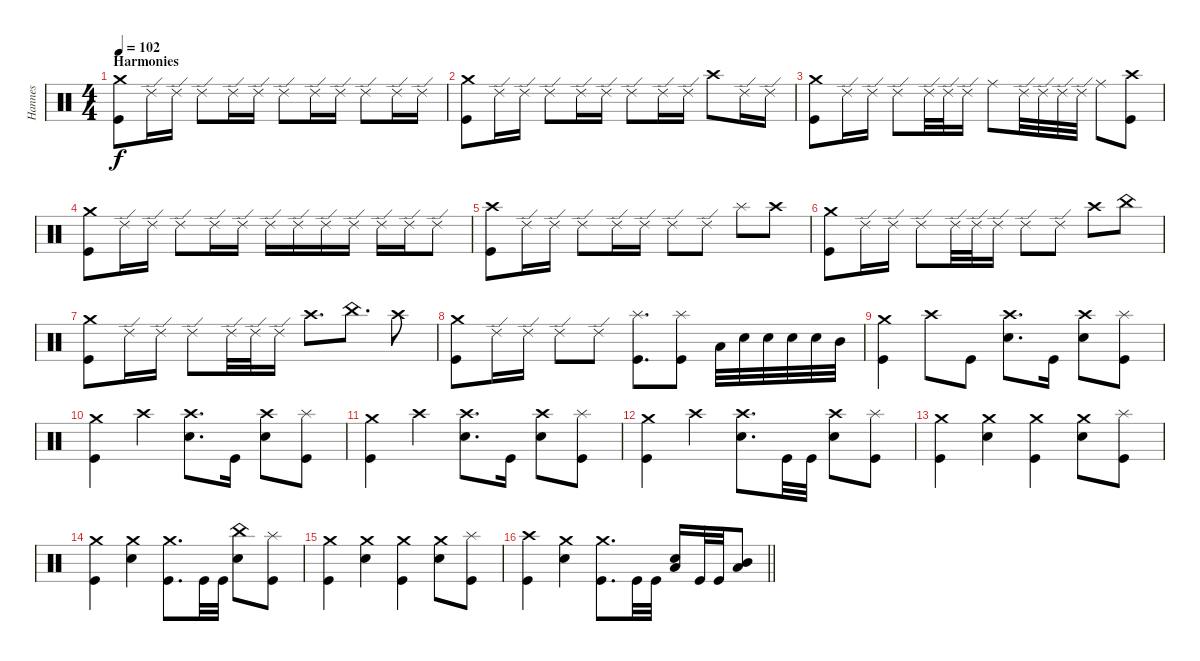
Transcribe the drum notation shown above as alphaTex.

\track ("Hannes" "Hannes") {instrument percussion}
\staff {score}
\articulation defaults
\ts (4 4)
\section ("" "Harmonies")
\tempo 102
\clef neutral
\ks c
("Crash medium (hit)" "Kick (hit)").8{dy f} "Ride (edge) 2".16 "Ride (edge) 2".16 "Ride (edge) 2".8 "Ride (edge) 2".16 "Ride (edge) 2".16 "Ride (edge) 2".8 "Ride (edge) 2".16 "Ride (edge) 2".16 "Ride (edge) 2".8 "Ride (edge) 2".16 "Ride (edge) 2".16 |
("Crash medium (hit)" "Kick (hit)").8 "Ride (edge) 2".16 "Ride (edge) 2".16 "Ride (edge) 2".8 "Ride (edge) 2".16 "Ride (edge) 2".16 "Ride (edge) 2".8 "Ride (edge) 2".16 "Ride (edge) 2".16 "Crash high (hit)".8 "Ride (edge) 2".16 "Ride (edge) 2".16 |
("Crash medium (hit)" "Kick (hit)").8 "Ride (edge) 2".16 "Ride (edge) 2".16 "Ride (edge) 2".8 "Ride (edge) 2".32 "Ride (edge) 2".32 "Ride (edge) 2".16 "Ride (middle)".8 "Ride (edge) 2".32 "Ride (edge) 2".32 "Ride (edge) 2".32 "Ride (edge) 2".32 "Ride (middle)".8 ("Crash high (hit)" "Kick (hit)").8 |
("Crash medium (hit)" "Kick (hit)").8 "Ride (edge) 2".16 "Ride (edge) 2".16 "Ride (edge) 2".8 "Ride (edge) 2".16 "Ride (edge) 2".16 "Ride (edge) 2".16 "Ride (edge) 2".16 "Ride (edge) 2".16 "Ride (edge) 2".16 "Ride (edge) 2".16 "Ride (edge) 2".16 "Ride (edge) 2".8 |
("Crash high (hit)" "Kick (hit)").8 "Ride (edge) 2".16 "Ride (edge) 2".16 "Ride (edge) 2".8 "Ride (edge) 2".16 "Ride (edge) 2".16 "Ride (edge) 2".8 "Ride (edge) 2".8 "Splash (hit)".8 "Crash high (hit)".8 |
("Crash medium (hit)" "Kick (hit)").8 "Ride (edge) 2".16 "Ride (edge) 2".16 "Ride (edge) 2".8 "Ride (edge) 2".32 "Ride (edge) 2".32 "Ride (edge) 2".16 "Ride (edge) 2".8 "Ride (edge) 2".8 "Crash high (hit)".8 "China (hit)".8 |
("Crash medium (hit)" "Kick (hit)").8 "Ride (edge) 2".16 "Ride (edge) 2".16 "Ride (edge) 2".8 "Ride (edge) 2".32 "Ride (edge) 2".32 "Ride (edge) 2".16 "Crash high (hit)".8{d} "China (hit)".8{d} "Crash high (hit)".8 |
("Crash medium (hit)" "Kick (hit)").8 "Ride (edge) 2".16 "Ride (edge) 2".16 "Ride (edge) 2".8 "Ride (edge) 2".8 ("Splash (hit)" "Kick (hit)").8{d} ("Splash (hit)" "Kick (hit)").8 "Low Tom (hit)".32 "Electric Snare (hit)".32 "Electric Snare (hit)".32 "Electric Snare (hit)".32 "Electric Snare (hit)".32 "Mid Tom (hit)".32 |
("Crash medium (hit)" "Kick (hit)").4 "Crash high (hit)".8 "Kick (hit)".8 ("Crash high (hit)" "Electric Snare (hit)").8{d} "Kick (hit)".16 ("Crash high (hit)" "Electric Snare (hit)").8 ("Splash (hit)" "Kick (hit)").8 |
("Crash medium (hit)" "Kick (hit)").4 "Crash high (hit)".4 ("Crash high (hit)" "Electric Snare (hit)").8{d} "Kick (hit)".16 ("Crash high (hit)" "Electric Snare (hit)").8 ("Splash (hit)" "Kick (hit)").8 |
("Crash medium (hit)" "Kick (hit)").4 "Crash high (hit)".4 ("Crash high (hit)" "Electric Snare (hit)").8{d} "Kick (hit)".16 ("Crash high (hit)" "Electric Snare (hit)").8 ("Splash (hit)" "Kick (hit)").8 |
("Crash medium (hit)" "Kick (hit)").4 "Crash high (hit)".4 ("Crash high (hit)" "Electric Snare (hit)").8{d} "Kick (hit)".32 "Kick (hit)".32 ("Crash high (hit)" "Electric Snare (hit)").8 ("Splash (hit)" "Kick (hit)").8 |
("Crash medium (hit)" "Kick (hit)").4 ("Crash medium (hit)" "Electric Snare (hit)").4 ("Crash medium (hit)" "Kick (hit)").4 ("Crash medium (hit)" "Electric Snare (hit)").8 ("Splash (hit)" "Kick (hit)").8 |
("Crash medium (hit)" "Kick (hit)").4 ("Crash medium (hit)" "Electric Snare (hit)").4 ("Crash medium (hit)" "Kick (hit)").8{d} "Kick (hit)".32 "Kick (hit)".32 ("China (hit)" "Electric Snare (hit)").8 ("Splash (hit)" "Kick (hit)").8 |
("Crash medium (hit)" "Kick (hit)").4 ("Crash medium (hit)" "Electric Snare (hit)").4 ("Crash medium (hit)" "Kick (hit)").4 ("Crash medium (hit)" "Electric Snare (hit)").8 ("Splash (hit)" "Kick (hit)").8 |
\barLineRight lightlight
("Crash high (hit)" "Kick (hit)").4 ("Crash medium (hit)" "Electric Snare (hit)").4 ("Crash medium (hit)" "Kick (hit)").8{d} "Kick (hit)".32 "Kick (hit)".32 ("Low Tom (hit)" "Electric Snare (hit)").16 "Kick (hit)".32 "Kick (hit)".32 ("Low Tom (hit)" "Mid Tom (hit)").8
